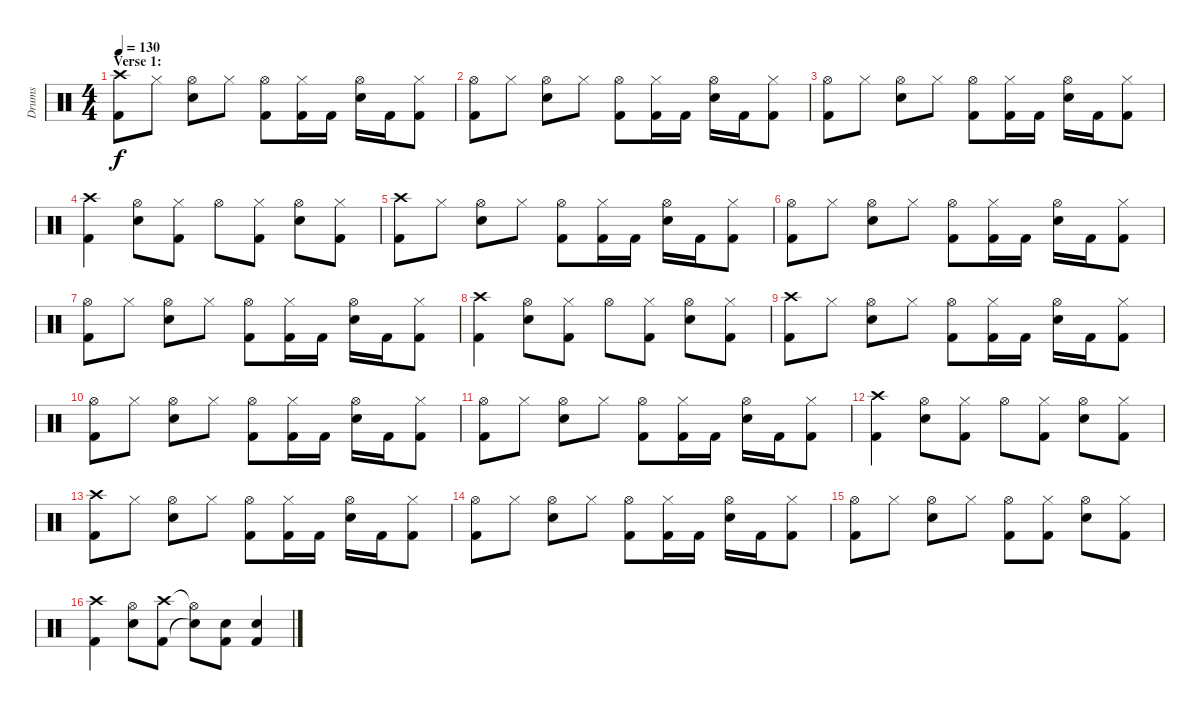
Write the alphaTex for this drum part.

\track ("Drums" "Drums") {instrument percussion}
\staff {score}
\articulation defaults
\ts (4 4)
\section ("" "Verse 1:")
\tempo 130
\clef neutral
\ks c
("Crash high (hit)" "Kick (hit) 2").8{dy f} "Hi-Hat (closed)".8 ("Hi-Hat (open)" "Electric Snare (hit)").8 "Hi-Hat (closed)".8 ("Hi-Hat (open)" "Kick (hit) 2").8 ("Hi-Hat (closed)" "Kick (hit) 2").16 "Kick (hit) 2".16 ("Hi-Hat (open)" "Electric Snare (hit)").16 "Kick (hit) 2".16 ("Hi-Hat (closed)" "Kick (hit) 2").8 |
("Hi-Hat (open)" "Kick (hit) 2").8 "Hi-Hat (closed)".8 ("Hi-Hat (open)" "Electric Snare (hit)").8 "Hi-Hat (closed)".8 ("Hi-Hat (open)" "Kick (hit) 2").8 ("Hi-Hat (closed)" "Kick (hit) 2").16 "Kick (hit) 2".16 ("Hi-Hat (open)" "Electric Snare (hit)").16 "Kick (hit) 2".16 ("Hi-Hat (closed)" "Kick (hit) 2").8 |
("Hi-Hat (open)" "Kick (hit) 2").8 "Hi-Hat (closed)".8 ("Hi-Hat (open)" "Electric Snare (hit)").8 "Hi-Hat (closed)".8 ("Hi-Hat (open)" "Kick (hit) 2").8 ("Hi-Hat (closed)" "Kick (hit) 2").16 "Kick (hit) 2".16 ("Hi-Hat (open)" "Electric Snare (hit)").16 "Kick (hit) 2".16 ("Hi-Hat (closed)" "Kick (hit) 2").8 |
("Crash high (hit)" "Kick (hit) 2").4 ("Hi-Hat (open)" "Electric Snare (hit)").8 ("Hi-Hat (closed)" "Kick (hit) 2").8 "Hi-Hat (open)".8 ("Hi-Hat (closed)" "Kick (hit) 2").8 ("Hi-Hat (open)" "Electric Snare (hit)").8 ("Hi-Hat (closed)" "Kick (hit) 2").8 |
("Crash high (hit)" "Kick (hit) 2").8 "Hi-Hat (closed)".8 ("Hi-Hat (open)" "Electric Snare (hit)").8 "Hi-Hat (closed)".8 ("Hi-Hat (open)" "Kick (hit) 2").8 ("Hi-Hat (closed)" "Kick (hit) 2").16 "Kick (hit) 2".16 ("Hi-Hat (open)" "Electric Snare (hit)").16 "Kick (hit) 2".16 ("Hi-Hat (closed)" "Kick (hit) 2").8 |
("Hi-Hat (open)" "Kick (hit) 2").8 "Hi-Hat (closed)".8 ("Hi-Hat (open)" "Electric Snare (hit)").8 "Hi-Hat (closed)".8 ("Hi-Hat (open)" "Kick (hit) 2").8 ("Hi-Hat (closed)" "Kick (hit) 2").16 "Kick (hit) 2".16 ("Hi-Hat (open)" "Electric Snare (hit)").16 "Kick (hit) 2".16 ("Hi-Hat (closed)" "Kick (hit) 2").8 |
("Hi-Hat (open)" "Kick (hit) 2").8 "Hi-Hat (closed)".8 ("Hi-Hat (open)" "Electric Snare (hit)").8 "Hi-Hat (closed)".8 ("Hi-Hat (open)" "Kick (hit) 2").8 ("Hi-Hat (closed)" "Kick (hit) 2").16 "Kick (hit) 2".16 ("Hi-Hat (open)" "Electric Snare (hit)").16 "Kick (hit) 2".16 ("Hi-Hat (closed)" "Kick (hit) 2").8 |
("Crash high (hit)" "Kick (hit) 2").4 ("Hi-Hat (open)" "Electric Snare (hit)").8 ("Hi-Hat (closed)" "Kick (hit) 2").8 "Hi-Hat (open)".8 ("Hi-Hat (closed)" "Kick (hit) 2").8 ("Hi-Hat (open)" "Electric Snare (hit)").8 ("Hi-Hat (closed)" "Kick (hit) 2").8 |
("Crash high (hit)" "Kick (hit) 2").8 "Hi-Hat (closed)".8 ("Hi-Hat (open)" "Electric Snare (hit)").8 "Hi-Hat (closed)".8 ("Hi-Hat (open)" "Kick (hit) 2").8 ("Hi-Hat (closed)" "Kick (hit) 2").16 "Kick (hit) 2".16 ("Hi-Hat (open)" "Electric Snare (hit)").16 "Kick (hit) 2".16 ("Hi-Hat (closed)" "Kick (hit) 2").8 |
("Hi-Hat (open)" "Kick (hit) 2").8 "Hi-Hat (closed)".8 ("Hi-Hat (open)" "Electric Snare (hit)").8 "Hi-Hat (closed)".8 ("Hi-Hat (open)" "Kick (hit) 2").8 ("Hi-Hat (closed)" "Kick (hit) 2").16 "Kick (hit) 2".16 ("Hi-Hat (open)" "Electric Snare (hit)").16 "Kick (hit) 2".16 ("Hi-Hat (closed)" "Kick (hit) 2").8 |
("Hi-Hat (open)" "Kick (hit) 2").8 "Hi-Hat (closed)".8 ("Hi-Hat (open)" "Electric Snare (hit)").8 "Hi-Hat (closed)".8 ("Hi-Hat (open)" "Kick (hit) 2").8 ("Hi-Hat (closed)" "Kick (hit) 2").16 "Kick (hit) 2".16 ("Hi-Hat (open)" "Electric Snare (hit)").16 "Kick (hit) 2".16 ("Hi-Hat (closed)" "Kick (hit) 2").8 |
("Crash high (hit)" "Kick (hit) 2").4 ("Hi-Hat (open)" "Electric Snare (hit)").8 ("Hi-Hat (closed)" "Kick (hit) 2").8 "Hi-Hat (open)".8 ("Hi-Hat (closed)" "Kick (hit) 2").8 ("Hi-Hat (open)" "Electric Snare (hit)").8 ("Hi-Hat (closed)" "Kick (hit) 2").8 |
("Crash high (hit)" "Kick (hit) 2").8 "Hi-Hat (closed)".8 ("Hi-Hat (open)" "Electric Snare (hit)").8 "Hi-Hat (closed)".8 ("Hi-Hat (open)" "Kick (hit) 2").8 ("Hi-Hat (closed)" "Kick (hit) 2").16 "Kick (hit) 2".16 ("Hi-Hat (open)" "Electric Snare (hit)").16 "Kick (hit) 2".16 ("Hi-Hat (closed)" "Kick (hit) 2").8 |
("Hi-Hat (open)" "Kick (hit) 2").8 "Hi-Hat (closed)".8 ("Hi-Hat (open)" "Electric Snare (hit)").8 "Hi-Hat (closed)".8 ("Hi-Hat (open)" "Kick (hit) 2").8 ("Hi-Hat (closed)" "Kick (hit) 2").16 "Kick (hit) 2".16 ("Hi-Hat (open)" "Electric Snare (hit)").16 "Kick (hit) 2".16 ("Hi-Hat (closed)" "Kick (hit) 2").8 |
("Hi-Hat (open)" "Kick (hit) 2").8 "Hi-Hat (closed)".8 ("Hi-Hat (open)" "Electric Snare (hit)").8 "Hi-Hat (closed)".8 ("Hi-Hat (open)" "Kick (hit) 2").8 ("Hi-Hat (closed)" "Kick (hit) 2").8 ("Hi-Hat (open)" "Electric Snare (hit)").8 ("Hi-Hat (closed)" "Kick (hit) 2").8 |
("Crash high (hit)" "Kick (hit) 2").4 ("Hi-Hat (open)" "Electric Snare (hit)").8 ("Crash high (hit)" "Kick (hit) 2").8 ("Hi-Hat (open)"{t} "Snare (hit)"{t}).8 ("Electric Snare (hit)" "Kick (hit) 2").8 ("Electric Snare (hit)" "Kick (hit) 2").4
